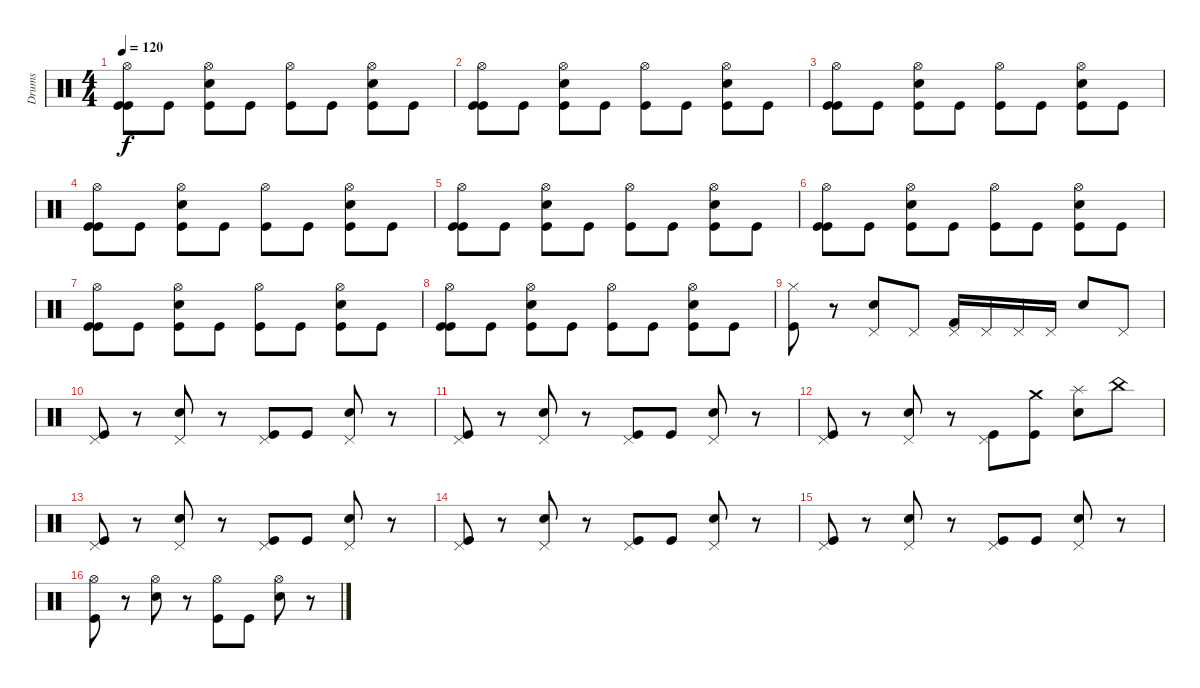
\track ("Drums" "Drums") {instrument percussion}
\staff {score}
\articulation defaults
\ts (4 4)
\tempo 120
\clef neutral
\ks c
("Hi-Hat (open)" "Kick (hit)" "Kick (hit)").8{dy f} "Kick (hit)".8 ("Hi-Hat (open)" "Snare (hit) 2" "Kick (hit)").8 "Kick (hit)".8 ("Hi-Hat (open)" "Kick (hit)").8 "Kick (hit)".8 ("Hi-Hat (open)" "Snare (hit) 2" "Kick (hit)").8 "Kick (hit)".8 |
("Hi-Hat (open)" "Kick (hit)" "Kick (hit)").8 "Kick (hit)".8 ("Hi-Hat (open)" "Snare (hit) 2" "Kick (hit)").8 "Kick (hit)".8 ("Hi-Hat (open)" "Kick (hit)").8 "Kick (hit)".8 ("Hi-Hat (open)" "Snare (hit) 2" "Kick (hit)").8 "Kick (hit)".8 |
("Hi-Hat (open)" "Kick (hit)" "Kick (hit)").8 "Kick (hit)".8 ("Hi-Hat (open)" "Snare (hit) 2" "Kick (hit)").8 "Kick (hit)".8 ("Hi-Hat (open)" "Kick (hit)").8 "Kick (hit)".8 ("Hi-Hat (open)" "Snare (hit) 2" "Kick (hit)").8 "Kick (hit)".8 |
("Hi-Hat (open)" "Kick (hit)" "Kick (hit)").8 "Kick (hit)".8 ("Hi-Hat (open)" "Snare (hit) 2" "Kick (hit)").8 "Kick (hit)".8 ("Hi-Hat (open)" "Kick (hit)").8 "Kick (hit)".8 ("Hi-Hat (open)" "Snare (hit) 2" "Kick (hit)").8 "Kick (hit)".8 |
("Hi-Hat (open)" "Kick (hit)" "Kick (hit)").8 "Kick (hit)".8 ("Hi-Hat (open)" "Snare (hit) 2" "Kick (hit)").8 "Kick (hit)".8 ("Hi-Hat (open)" "Kick (hit)").8 "Kick (hit)".8 ("Hi-Hat (open)" "Snare (hit) 2" "Kick (hit)").8 "Kick (hit)".8 |
("Hi-Hat (open)" "Kick (hit)" "Kick (hit)").8 "Kick (hit)".8 ("Hi-Hat (open)" "Snare (hit) 2" "Kick (hit)").8 "Kick (hit)".8 ("Hi-Hat (open)" "Kick (hit)").8 "Kick (hit)".8 ("Hi-Hat (open)" "Snare (hit) 2" "Kick (hit)").8 "Kick (hit)".8 |
("Hi-Hat (open)" "Kick (hit)" "Kick (hit)").8 "Kick (hit)".8 ("Hi-Hat (open)" "Snare (hit) 2" "Kick (hit)").8 "Kick (hit)".8 ("Hi-Hat (open)" "Kick (hit)").8 "Kick (hit)".8 ("Hi-Hat (open)" "Snare (hit) 2" "Kick (hit)").8 "Kick (hit)".8 |
("Hi-Hat (open)" "Kick (hit)" "Kick (hit)").8 "Kick (hit)".8 ("Hi-Hat (open)" "Snare (hit) 2" "Kick (hit)").8 "Kick (hit)".8 ("Hi-Hat (open)" "Kick (hit)").8 "Kick (hit)".8 ("Hi-Hat (open)" "Snare (hit) 2" "Kick (hit)").8 "Kick (hit)".8 |
("Hi-Hat (closed)" "Kick (hit)").8 r.8 ("Pedal Hi-Hat (hit)" "Snare (hit) 2").8 "Pedal Hi-Hat (hit)".8 ("Pedal Hi-Hat (hit)" "Kick (hit) 2").16 "Pedal Hi-Hat (hit)".16 "Pedal Hi-Hat (hit)".16 "Pedal Hi-Hat (hit)".16 "Snare (hit) 2".8 "Pedal Hi-Hat (hit)".8 |
("Pedal Hi-Hat (hit)" "Kick (hit)").8 r.8 ("Pedal Hi-Hat (hit)" "Snare (hit) 2").8 r.8 ("Pedal Hi-Hat (hit)" "Kick (hit)").8 "Kick (hit)".8 ("Pedal Hi-Hat (hit)" "Snare (hit) 2").8 r.8 |
("Pedal Hi-Hat (hit)" "Kick (hit)").8 r.8 ("Pedal Hi-Hat (hit)" "Snare (hit) 2").8 r.8 ("Pedal Hi-Hat (hit)" "Kick (hit)").8 "Kick (hit)".8 ("Pedal Hi-Hat (hit)" "Snare (hit) 2").8 r.8 |
("Pedal Hi-Hat (hit)" "Kick (hit)").8 r.8 ("Pedal Hi-Hat (hit)" "Snare (hit) 2").8 r.8 ("Pedal Hi-Hat (hit)" "Kick (hit)").8 ("Crash medium (hit)" "Kick (hit)").8 ("Splash (hit)" "Snare (hit) 2").8 "China (hit)".8 |
("Pedal Hi-Hat (hit)" "Kick (hit)").8 r.8 ("Pedal Hi-Hat (hit)" "Snare (hit) 2").8 r.8 ("Pedal Hi-Hat (hit)" "Kick (hit)").8 "Kick (hit)".8 ("Pedal Hi-Hat (hit)" "Snare (hit) 2").8 r.8 |
("Pedal Hi-Hat (hit)" "Kick (hit)").8 r.8 ("Pedal Hi-Hat (hit)" "Snare (hit) 2").8 r.8 ("Pedal Hi-Hat (hit)" "Kick (hit)").8 "Kick (hit)".8 ("Pedal Hi-Hat (hit)" "Snare (hit) 2").8 r.8 |
("Pedal Hi-Hat (hit)" "Kick (hit)").8 r.8 ("Pedal Hi-Hat (hit)" "Snare (hit) 2").8 r.8 ("Pedal Hi-Hat (hit)" "Kick (hit)").8 "Kick (hit)".8 ("Pedal Hi-Hat (hit)" "Snare (hit) 2").8 r.8 |
("Hi-Hat (open)" "Kick (hit)").8 r.8 ("Hi-Hat (open)" "Snare (hit) 2").8 r.8 ("Hi-Hat (open)" "Kick (hit)").8 "Kick (hit)".8 ("Hi-Hat (open)" "Snare (hit) 2").8 r.8
